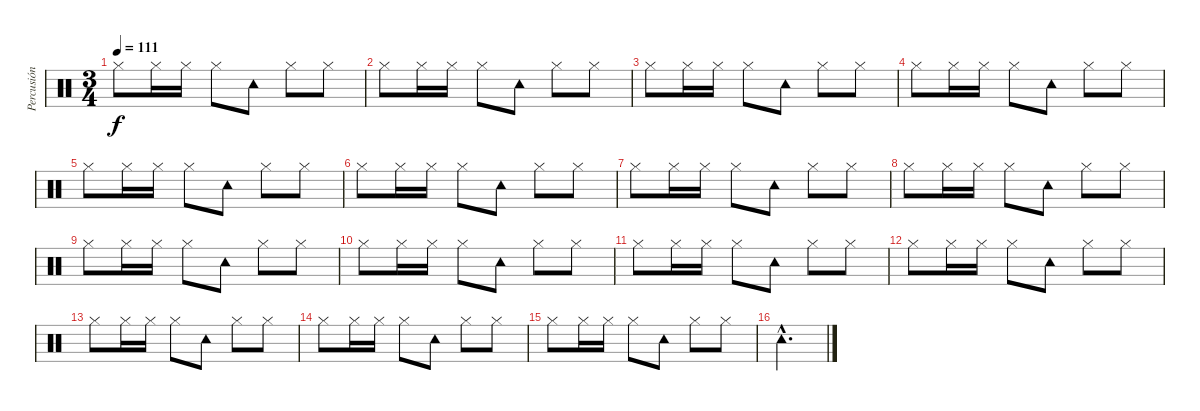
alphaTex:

\track ("Percusión" "Percusión") {instrument percussion}
\staff {score}
\articulation defaults
\ts (3 4)
\tempo 111
\clef neutral
\ks c "Hi-Hat (closed)".8{dy f} "Hi-Hat (closed)".16 "Hi-Hat (closed)".16 "Hi-Hat (closed)".8 "Tambourine (hit)".8 "Hi-Hat (closed)".8 "Hi-Hat (closed)".8
|
"Hi-Hat (closed)".8 "Hi-Hat (closed)".16 "Hi-Hat (closed)".16 "Hi-Hat (closed)".8 "Tambourine (hit)".8 "Hi-Hat (closed)".8 "Hi-Hat (closed)".8 |
"Hi-Hat (closed)".8 "Hi-Hat (closed)".16 "Hi-Hat (closed)".16 "Hi-Hat (closed)".8 "Tambourine (hit)".8 "Hi-Hat (closed)".8 "Hi-Hat (closed)".8 |
"Hi-Hat (closed)".8 "Hi-Hat (closed)".16 "Hi-Hat (closed)".16 "Hi-Hat (closed)".8 "Tambourine (hit)".8 "Hi-Hat (closed)".8 "Hi-Hat (closed)".8 |
"Hi-Hat (closed)".8 "Hi-Hat (closed)".16 "Hi-Hat (closed)".16 "Hi-Hat (closed)".8 "Tambourine (hit)".8 "Hi-Hat (closed)".8 "Hi-Hat (closed)".8 |
"Hi-Hat (closed)".8 "Hi-Hat (closed)".16 "Hi-Hat (closed)".16 "Hi-Hat (closed)".8 "Tambourine (hit)".8 "Hi-Hat (closed)".8 "Hi-Hat (closed)".8 |
"Hi-Hat (closed)".8 "Hi-Hat (closed)".16 "Hi-Hat (closed)".16 "Hi-Hat (closed)".8 "Tambourine (hit)".8 "Hi-Hat (closed)".8 "Hi-Hat (closed)".8 |
"Hi-Hat (closed)".8 "Hi-Hat (closed)".16 "Hi-Hat (closed)".16 "Hi-Hat (closed)".8 "Tambourine (hit)".8 "Hi-Hat (closed)".8 "Hi-Hat (closed)".8 |
"Hi-Hat (closed)".8 "Hi-Hat (closed)".16 "Hi-Hat (closed)".16 "Hi-Hat (closed)".8 "Tambourine (hit)".8 "Hi-Hat (closed)".8 "Hi-Hat (closed)".8 |
"Hi-Hat (closed)".8 "Hi-Hat (closed)".16 "Hi-Hat (closed)".16 "Hi-Hat (closed)".8 "Tambourine (hit)".8 "Hi-Hat (closed)".8 "Hi-Hat (closed)".8 |
"Hi-Hat (closed)".8 "Hi-Hat (closed)".16 "Hi-Hat (closed)".16 "Hi-Hat (closed)".8 "Tambourine (hit)".8 "Hi-Hat (closed)".8 "Hi-Hat (closed)".8 |
"Hi-Hat (closed)".8 "Hi-Hat (closed)".16 "Hi-Hat (closed)".16 "Hi-Hat (closed)".8 "Tambourine (hit)".8 "Hi-Hat (closed)".8 "Hi-Hat (closed)".8 |
"Hi-Hat (closed)".8 "Hi-Hat (closed)".16 "Hi-Hat (closed)".16 "Hi-Hat (closed)".8 "Tambourine (hit)".8 "Hi-Hat (closed)".8 "Hi-Hat (closed)".8 |
"Hi-Hat (closed)".8 "Hi-Hat (closed)".16 "Hi-Hat (closed)".16 "Hi-Hat (closed)".8 "Tambourine (hit)".8 "Hi-Hat (closed)".8 "Hi-Hat (closed)".8 |
"Hi-Hat (closed)".8 "Hi-Hat (closed)".16 "Hi-Hat (closed)".16 "Hi-Hat (closed)".8 "Tambourine (hit)".8 "Hi-Hat (closed)".8 "Hi-Hat (closed)".8 |
"Tambourine (hit)"{hac}.2{d}
